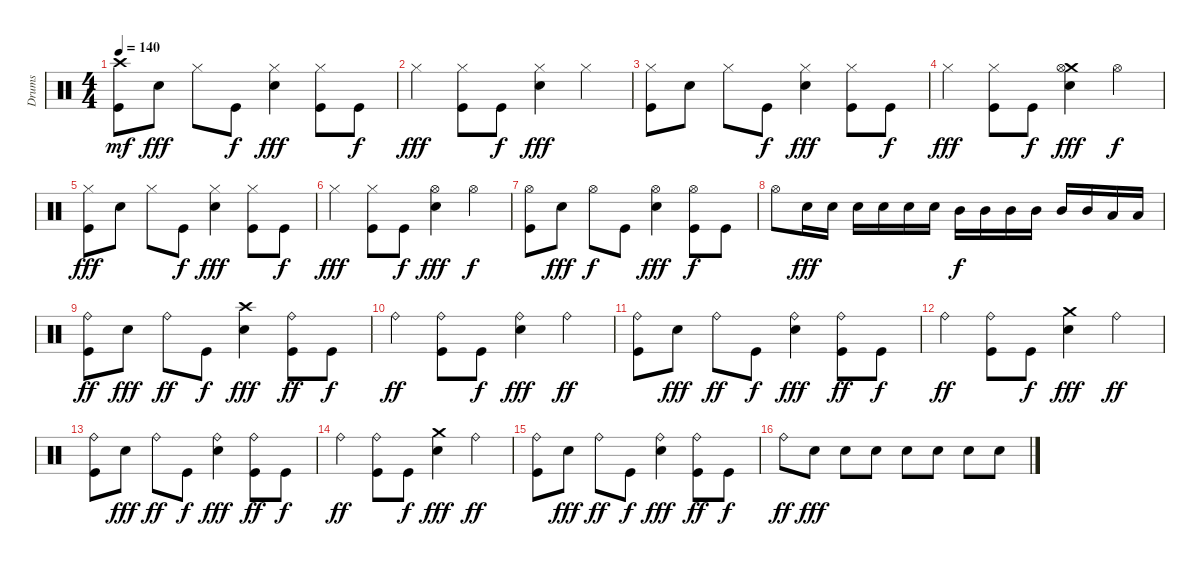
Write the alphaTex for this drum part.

\track ("Drums" "Drums") {instrument percussion}
\staff {score}
\articulation defaults
\ts (4 4)
\tempo 140
\clef neutral
\ks c
("Kick (hit)" "Crash high (hit)").8{dy mf} "Electric Snare (hit)".8{dy fff} "Hi-Hat (closed)".8 "Kick (hit)".8{dy f} ("Electric Snare (hit)" "Hi-Hat (closed)").4{dy fff} ("Kick (hit)" "Hi-Hat (closed)").8 "Kick (hit)".8{dy f} |
"Hi-Hat (closed)".4{dy fff} ("Kick (hit)" "Hi-Hat (closed)").8 "Kick (hit)".8{dy f} ("Electric Snare (hit)" "Hi-Hat (closed)").4{dy fff} "Hi-Hat (closed)".4 |
("Kick (hit)" "Hi-Hat (closed)").8 "Electric Snare (hit)".8 "Hi-Hat (closed)".8 "Kick (hit)".8{dy f} ("Electric Snare (hit)" "Hi-Hat (closed)").4{dy fff} ("Kick (hit)" "Hi-Hat (closed)").8 "Kick (hit)".8{dy f} |
"Hi-Hat (closed)".4{dy fff} ("Kick (hit)" "Hi-Hat (closed)").8 "Kick (hit)".8{dy f} ("Crash medium (hit)" "Electric Snare (hit)" "Hi-Hat (open)").4{dy fff} "Hi-Hat (open)".4{dy f} |
("Kick (hit)" "Hi-Hat (closed)").8{dy fff} "Electric Snare (hit)".8 "Hi-Hat (closed)".8 "Kick (hit)".8{dy f} ("Electric Snare (hit)" "Hi-Hat (closed)").4{dy fff} ("Kick (hit)" "Hi-Hat (closed)").8 "Kick (hit)".8{dy f} |
"Hi-Hat (closed)".4{dy fff} ("Kick (hit)" "Hi-Hat (closed)").8 "Kick (hit)".8{dy f} ("Electric Snare (hit)" "Hi-Hat (open)").4{dy fff} "Hi-Hat (open)".4{dy f} |
("Kick (hit)" "Hi-Hat (open)").8 "Electric Snare (hit)".8{dy fff} "Hi-Hat (open)".8{dy f} "Kick (hit)".8 ("Electric Snare (hit)" "Hi-Hat (open)").4{dy fff} ("Kick (hit)" "Hi-Hat (open)").8{dy f} "Kick (hit)".8 |
"Hi-Hat (open)".8 "Electric Snare (hit)".16{dy fff} "Electric Snare (hit)".16 "Electric Snare (hit)".16 "Electric Snare (hit)".16 "Electric Snare (hit)".16 "Electric Snare (hit)".16 "Mid Tom (hit)".16{dy f} "Mid Tom (hit)".16 "Mid Tom (hit)".16 "Mid Tom (hit)".16 "Mid Tom (hit)".16 "Mid Tom (hit)".16 "Low Tom (hit)".16 "Low Tom (hit)".16 |
("Ride (bell)" "Kick (hit)").8{dy ff} "Electric Snare (hit)".8{dy fff} "Ride (bell)".8{dy ff} "Kick (hit)".8{dy f} ("Crash high (hit)" "Electric Snare (hit)").4{dy fff} ("Ride (bell)" "Kick (hit)").8{dy ff} "Kick (hit)".8{dy f} |
"Ride (bell)".4{dy ff} ("Ride (bell)" "Kick (hit)").8 "Kick (hit)".8{dy f} ("Ride (bell)" "Electric Snare (hit)").4{dy fff} "Ride (bell)".4{dy ff} |
("Ride (bell)" "Kick (hit)").8 "Electric Snare (hit)".8{dy fff} "Ride (bell)".8{dy ff} "Kick (hit)".8{dy f} ("Ride (bell)" "Electric Snare (hit)").4{dy fff} ("Ride (bell)" "Kick (hit)").8{dy ff} "Kick (hit)".8{dy f} |
"Ride (bell)".4{dy ff} ("Kick (hit)" "Ride (bell)").8 "Kick (hit)".8{dy f} ("Crash medium (hit)" "Electric Snare (hit)").4{dy fff} "Ride (bell)".4{dy ff} |
("Ride (bell)" "Kick (hit)").8 "Electric Snare (hit)".8{dy fff} "Ride (bell)".8{dy ff} "Kick (hit)".8{dy f} ("Ride (bell)" "Electric Snare (hit)").4{dy fff} ("Ride (bell)" "Kick (hit)").8{dy ff} "Kick (hit)".8{dy f} |
"Ride (bell)".4{dy ff} ("Kick (hit)" "Ride (bell)").8 "Kick (hit)".8{dy f} ("Crash medium (hit)" "Electric Snare (hit)").4{dy fff} "Ride (bell)".4{dy ff} |
("Ride (bell)" "Kick (hit)").8 "Electric Snare (hit)".8{dy fff} "Ride (bell)".8{dy ff} "Kick (hit)".8{dy f} ("Ride (bell)" "Electric Snare (hit)").4{dy fff} ("Ride (bell)" "Kick (hit)").8{dy ff} "Kick (hit)".8{dy f} |
"Ride (bell)".8{dy ff} "Electric Snare (hit)".8{dy fff} "Electric Snare (hit)".8 "Electric Snare (hit)".8 "Electric Snare (hit)".8 "Electric Snare (hit)".8 "Electric Snare (hit)".8 "Electric Snare (hit)".8
